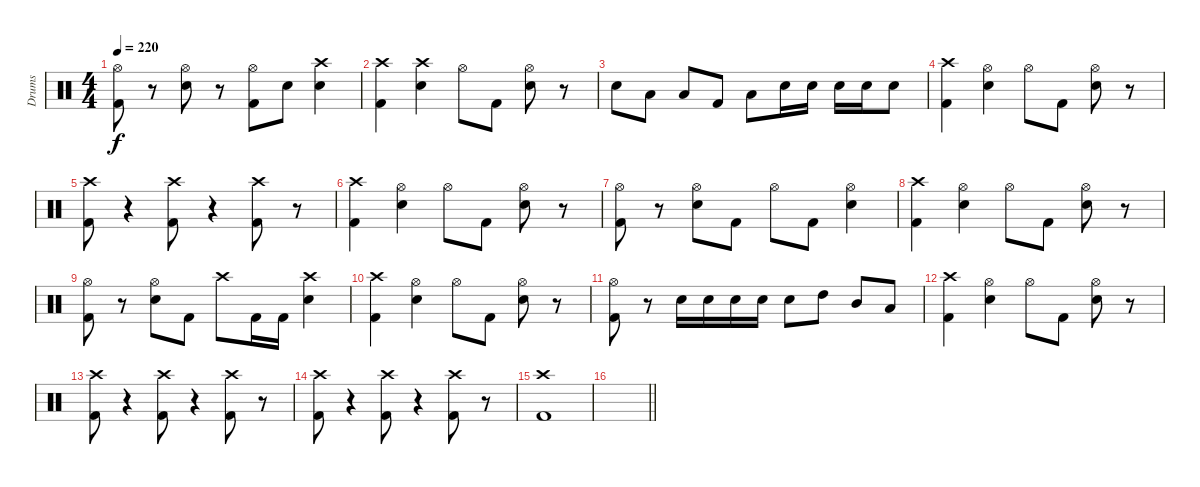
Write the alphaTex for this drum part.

\track ("Drums" "Drums") {instrument percussion}
\staff {score}
\articulation defaults
\ts (4 4)
\tempo 220
\clef neutral
\ks c
("Hi-Hat (open)" "Kick (hit) 2").8{dy f} r.8 ("Hi-Hat (open)" "Snare (hit) 2").8 r.8 ("Hi-Hat (open)" "Kick (hit) 2").8 "Snare (hit) 2".8 ("Crash high (hit)" "Snare (hit) 2").4 |
("Crash high (hit)" "Kick (hit) 2").4 ("Crash high (hit)" "Snare (hit) 2").4 "Hi-Hat (open)".8 "Kick (hit) 2".8 ("Hi-Hat (open)" "Snare (hit) 2").8 r.8 |
"Snare (hit) 2".8 "Low Tom (hit)".8 "Low Tom (hit)".8 "Kick (hit) 2".8 "Low Tom (hit)".8 "Snare (hit) 2".16 "Snare (hit) 2".16 "Snare (hit) 2".16 "Snare (hit) 2".16 "Snare (hit) 2".8 |
("Crash high (hit)" "Kick (hit) 2").4 ("Hi-Hat (open)" "Snare (hit) 2").4 "Hi-Hat (open)".8 "Kick (hit) 2".8 ("Hi-Hat (open)" "Snare (hit) 2").8 r.8 |
("Crash high (hit)" "Kick (hit) 2").8 r.4 ("Crash high (hit)" "Kick (hit) 2").8 r.4 ("Crash high (hit)" "Kick (hit) 2").8 r.8 |
("Crash high (hit)" "Kick (hit) 2").4 ("Hi-Hat (open)" "Snare (hit) 2").4 "Hi-Hat (open)".8 "Kick (hit) 2".8 ("Hi-Hat (open)" "Snare (hit) 2").8 r.8 |
("Hi-Hat (open)" "Kick (hit) 2").8 r.8 ("Hi-Hat (open)" "Snare (hit) 2").8 "Kick (hit) 2".8 "Hi-Hat (open)".8 "Kick (hit) 2".8 ("Hi-Hat (open)" "Snare (hit) 2").4 |
("Crash high (hit)" "Kick (hit) 2").4 ("Hi-Hat (open)" "Snare (hit) 2").4 "Hi-Hat (open)".8 "Kick (hit) 2".8 ("Hi-Hat (open)" "Snare (hit) 2").8 r.8 |
("Hi-Hat (open)" "Kick (hit) 2").8 r.8 ("Hi-Hat (open)" "Snare (hit) 2").8 "Kick (hit) 2".8 "Crash high (hit)".8 "Kick (hit) 2".16 "Kick (hit) 2".16 ("Crash high (hit)" "Snare (hit) 2").4 |
("Crash high (hit)" "Kick (hit) 2").4 ("Hi-Hat (open)" "Snare (hit) 2").4 "Hi-Hat (open)".8 "Kick (hit) 2".8 ("Hi-Hat (open)" "Snare (hit) 2").8 r.8 |
("Hi-Hat (open)" "Kick (hit) 2").8 r.8 "Snare (hit) 2".16 "Snare (hit) 2".16 "Snare (hit) 2".16 "Snare (hit) 2".16 "Snare (hit) 2".8 "High Tom (hit)".8 "Mid Tom (hit)".8 "Low Tom (hit)".8 |
("Crash high (hit)" "Kick (hit) 2").4 ("Hi-Hat (open)" "Snare (hit) 2").4 "Hi-Hat (open)".8 "Kick (hit) 2".8 ("Hi-Hat (open)" "Snare (hit) 2").8 r.8 |
("Crash high (hit)" "Kick (hit) 2").8 r.4 ("Crash high (hit)" "Kick (hit) 2").8 r.4 ("Crash high (hit)" "Kick (hit) 2").8 r.8 |
("Crash high (hit)" "Kick (hit) 2").8 r.4 ("Crash high (hit)" "Kick (hit) 2").8 r.4 ("Crash high (hit)" "Kick (hit) 2").8 r.8 |
("Crash high (hit)" "Kick (hit) 2").1 |
\barLineRight lightlight
